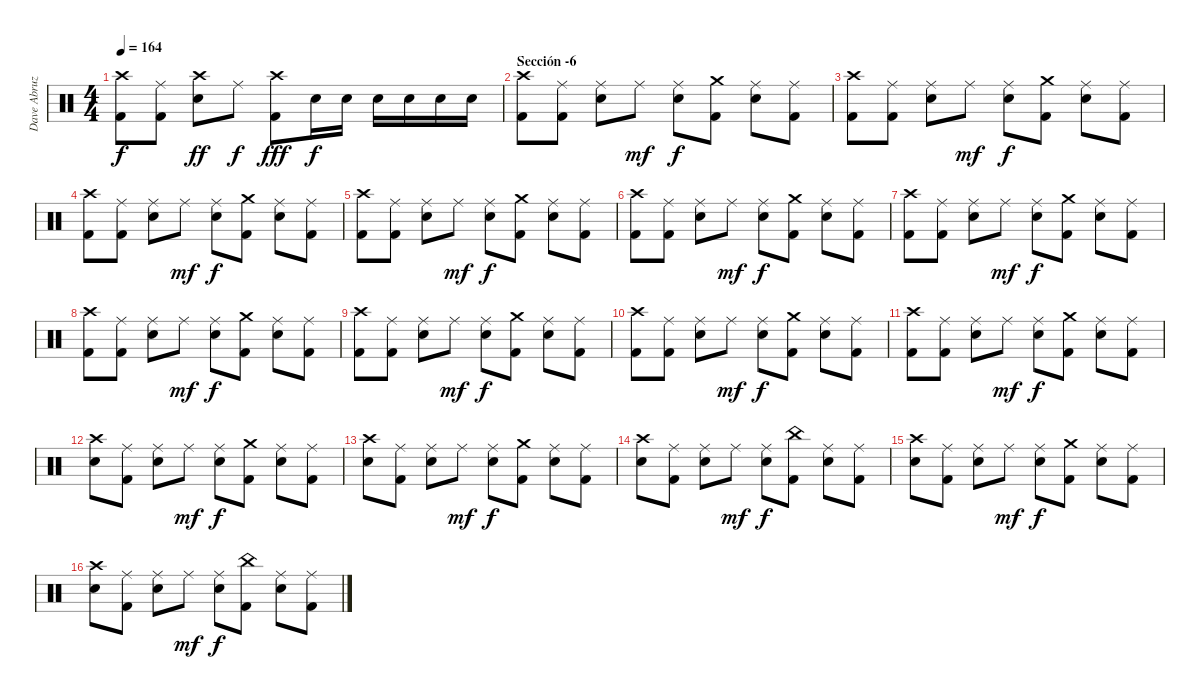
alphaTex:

\track ("Dave Abruzzese" "Dave Abruz") {instrument percussion}
\staff {score}
\articulation defaults
\ts (4 4)
\tempo 164
\clef neutral
\ks c
("Crash high (hit)" "Kick (hit) 2").8{dy f} ("Kick (hit) 2" "Ride (middle)").8 ("Crash high (hit)" "Electric Snare (hit)").8{dy ff} "Ride (middle)".8{dy f} ("Crash high (hit)" "Kick (hit) 2").8{dy fff} "Electric Snare (hit)".16{dy f} "Electric Snare (hit)".16 "Electric Snare (hit)".16 "Electric Snare (hit)".16 "Electric Snare (hit)".16 "Electric Snare (hit)".16 |
\section ("" "Sección -6")
("Kick (hit) 2" "Crash high (hit)").8 ("Kick (hit) 2" "Ride (middle)").8 ("Electric Snare (hit)" "Ride (middle)").8 "Ride (middle)".8{dy mf} ("Electric Snare (hit)" "Ride (middle)").8{dy f} ("Kick (hit) 2" "Crash medium (hit)").8 ("Electric Snare (hit)" "Ride (middle)").8 ("Kick (hit) 2" "Ride (middle)").8 |
("Kick (hit) 2" "Crash high (hit)").8 ("Kick (hit) 2" "Ride (middle)").8 ("Electric Snare (hit)" "Ride (middle)").8 "Ride (middle)".8{dy mf} ("Electric Snare (hit)" "Ride (middle)").8{dy f} ("Kick (hit) 2" "Crash medium (hit)").8 ("Electric Snare (hit)" "Ride (middle)").8 ("Kick (hit) 2" "Ride (middle)").8 |
("Kick (hit) 2" "Crash high (hit)").8 ("Kick (hit) 2" "Ride (middle)").8 ("Electric Snare (hit)" "Ride (middle)").8 "Ride (middle)".8{dy mf} ("Electric Snare (hit)" "Ride (middle)").8{dy f} ("Kick (hit) 2" "Crash medium (hit)").8 ("Electric Snare (hit)" "Ride (middle)").8 ("Kick (hit) 2" "Ride (middle)").8 |
("Kick (hit) 2" "Crash high (hit)").8 ("Kick (hit) 2" "Ride (middle)").8 ("Electric Snare (hit)" "Ride (middle)").8 "Ride (middle)".8{dy mf} ("Electric Snare (hit)" "Ride (middle)").8{dy f} ("Kick (hit) 2" "Crash medium (hit)").8 ("Electric Snare (hit)" "Ride (middle)").8 ("Kick (hit) 2" "Ride (middle)").8 |
("Kick (hit) 2" "Crash high (hit)").8 ("Kick (hit) 2" "Ride (middle)").8 ("Electric Snare (hit)" "Ride (middle)").8 "Ride (middle)".8{dy mf} ("Electric Snare (hit)" "Ride (middle)").8{dy f} ("Kick (hit) 2" "Crash medium (hit)").8 ("Electric Snare (hit)" "Ride (middle)").8 ("Kick (hit) 2" "Ride (middle)").8 |
("Kick (hit) 2" "Crash high (hit)").8 ("Kick (hit) 2" "Ride (middle)").8 ("Electric Snare (hit)" "Ride (middle)").8 "Ride (middle)".8{dy mf} ("Electric Snare (hit)" "Ride (middle)").8{dy f} ("Kick (hit) 2" "Crash medium (hit)").8 ("Electric Snare (hit)" "Ride (middle)").8 ("Kick (hit) 2" "Ride (middle)").8 |
("Kick (hit) 2" "Crash high (hit)").8 ("Kick (hit) 2" "Ride (middle)").8 ("Electric Snare (hit)" "Ride (middle)").8 "Ride (middle)".8{dy mf} ("Electric Snare (hit)" "Ride (middle)").8{dy f} ("Kick (hit) 2" "Crash medium (hit)").8 ("Electric Snare (hit)" "Ride (middle)").8 ("Kick (hit) 2" "Ride (middle)").8 |
("Kick (hit) 2" "Crash high (hit)").8 ("Kick (hit) 2" "Ride (middle)").8 ("Electric Snare (hit)" "Ride (middle)").8 "Ride (middle)".8{dy mf} ("Electric Snare (hit)" "Ride (middle)").8{dy f} ("Kick (hit) 2" "Crash medium (hit)").8 ("Electric Snare (hit)" "Ride (middle)").8 ("Kick (hit) 2" "Ride (middle)").8 |
("Kick (hit) 2" "Crash high (hit)").8 ("Kick (hit) 2" "Ride (middle)").8 ("Electric Snare (hit)" "Ride (middle)").8 "Ride (middle)".8{dy mf} ("Electric Snare (hit)" "Ride (middle)").8{dy f} ("Kick (hit) 2" "Crash medium (hit)").8 ("Electric Snare (hit)" "Ride (middle)").8 ("Kick (hit) 2" "Ride (middle)").8 |
("Kick (hit) 2" "Crash high (hit)").8 ("Kick (hit) 2" "Ride (middle)").8 ("Electric Snare (hit)" "Ride (middle)").8 "Ride (middle)".8{dy mf} ("Electric Snare (hit)" "Ride (middle)").8{dy f} ("Kick (hit) 2" "Crash medium (hit)").8 ("Electric Snare (hit)" "Ride (middle)").8 ("Kick (hit) 2" "Ride (middle)").8 |
("Electric Snare (hit)" "Crash high (hit)").8 ("Kick (hit) 2" "Ride (middle)").8 ("Electric Snare (hit)" "Ride (middle)").8 "Ride (middle)".8{dy mf} ("Electric Snare (hit)" "Ride (middle)").8{dy f} ("Kick (hit) 2" "Crash medium (hit)").8 ("Electric Snare (hit)" "Ride (middle)").8 ("Kick (hit) 2" "Ride (middle)").8 |
("Electric Snare (hit)" "Crash high (hit)").8 ("Kick (hit) 2" "Ride (middle)").8 ("Electric Snare (hit)" "Ride (middle)").8 "Ride (middle)".8{dy mf} ("Electric Snare (hit)" "Ride (middle)").8{dy f} ("Kick (hit) 2" "Crash medium (hit)").8 ("Electric Snare (hit)" "Ride (middle)").8 ("Kick (hit) 2" "Ride (middle)").8 |
("Electric Snare (hit)" "Crash high (hit)").8 ("Kick (hit) 2" "Ride (middle)").8 ("Electric Snare (hit)" "Ride (middle)").8 "Ride (middle)".8{dy mf} ("Electric Snare (hit)" "Ride (middle)").8{dy f} ("Kick (hit) 2" "China (hit)").8 ("Electric Snare (hit)" "Ride (middle)").8 ("Kick (hit) 2" "Ride (middle)").8 |
("Electric Snare (hit)" "Crash high (hit)").8 ("Kick (hit) 2" "Ride (middle)").8 ("Electric Snare (hit)" "Ride (middle)").8 "Ride (middle)".8{dy mf} ("Electric Snare (hit)" "Ride (middle)").8{dy f} ("Kick (hit) 2" "Crash medium (hit)").8 ("Electric Snare (hit)" "Ride (middle)").8 ("Kick (hit) 2" "Ride (middle)").8 |
("Electric Snare (hit)" "Crash high (hit)").8 ("Kick (hit) 2" "Ride (middle)").8 ("Electric Snare (hit)" "Ride (middle)").8 "Ride (middle)".8{dy mf} ("Electric Snare (hit)" "Ride (middle)").8{dy f} ("Kick (hit) 2" "China (hit)").8 ("Electric Snare (hit)" "Ride (middle)").8 ("Kick (hit) 2" "Ride (middle)").8
